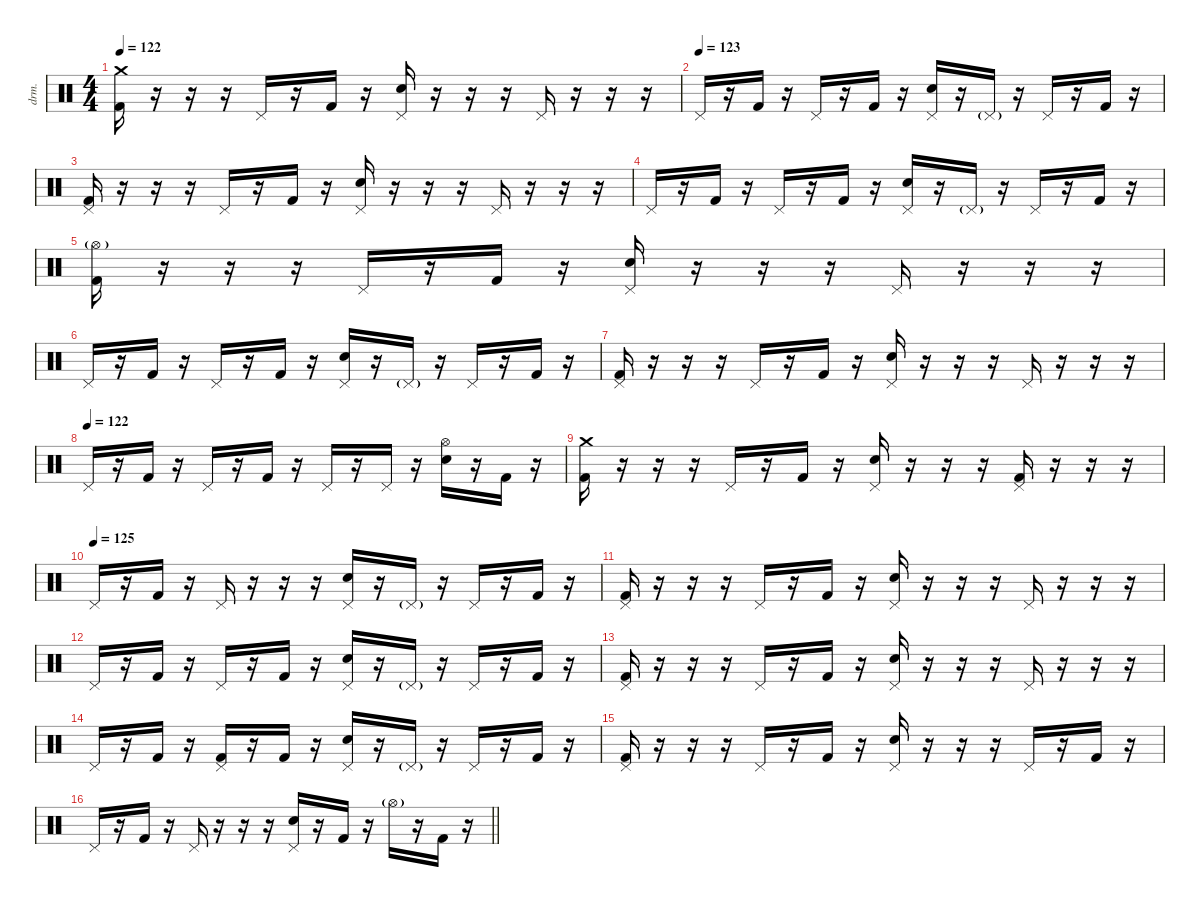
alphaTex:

\defaultSystemsLayout 4
\hideDynamics
\bracketExtendMode nobrackets
\otherSystemsTrackNameOrientation horizontal
\track ("Percussion" "drm.") {instrument percussion}
\staff {score}
\articulation defaults
\ts (4 4)
\section ("" "")
\tempo 122
\clef neutral
\ks c
("Kick (hit) 2" "Crash medium (hit)").16{dy f beam Down} r.16{beam Down} r.16{beam Down} r.16{beam Down} "Pedal Hi-Hat (hit)".16{beam Up} r.16{beam Up} "Kick (hit) 2".16{beam Up} r.16{beam Up} ("Snare (hit) 2" "Pedal Hi-Hat (hit)").16{beam Up} r.16{beam Up} r.16{beam Up} r.16{beam Up} "Pedal Hi-Hat (hit)".16{beam Up} r.16{beam Up} r.16{beam Up} r.16{beam Up} |
\tempo (123)
"Pedal Hi-Hat (hit)".16{beam Up} r.16{beam Up} "Kick (hit) 2".16{beam Up} r.16{beam Up} "Pedal Hi-Hat (hit)".16{beam Up} r.16{beam Up} "Kick (hit) 2".16{beam Up} r.16{beam Up} ("Snare (hit) 2" "Pedal Hi-Hat (hit)").16{beam Up} r.16{beam Up} "Pedal Hi-Hat (hit)"{g}.16{dy mf beam Up} r.16{beam Up} "Pedal Hi-Hat (hit)".16{dy f beam Up} r.16{beam Up} "Kick (hit) 2".16{beam Up} r.16{beam Up} |
("Kick (hit) 2" "Pedal Hi-Hat (hit)").16{beam Up} r.16{beam Up} r.16{beam Up} r.16{beam Up} "Pedal Hi-Hat (hit)".16{beam Up} r.16{beam Up} "Kick (hit) 2".16{beam Up} r.16{beam Up} ("Snare (hit) 2" "Pedal Hi-Hat (hit)").16{beam Up} r.16{beam Up} r.16{beam Up} r.16{beam Up} "Pedal Hi-Hat (hit)".16{beam Up} r.16{beam Up} r.16{beam Up} r.16{beam Up} |
"Pedal Hi-Hat (hit)".16{beam Up} r.16{beam Up} "Kick (hit) 2".16{beam Up} r.16{beam Up} "Pedal Hi-Hat (hit)".16{beam Up} r.16{beam Up} "Kick (hit) 2".16{beam Up} r.16{beam Up} ("Snare (hit) 2" "Pedal Hi-Hat (hit)").16{beam Up} r.16{beam Up} "Pedal Hi-Hat (hit)"{g}.16{dy mf beam Up} r.16{beam Up} "Pedal Hi-Hat (hit)".16{dy f beam Up} r.16{beam Up} "Kick (hit) 2".16{beam Up} r.16{beam Up} |
("Kick (hit) 2" "Hi-Hat (open)"{g}).16{beam Down} r.16{beam Down} r.16{beam Down} r.16{beam Down} "Pedal Hi-Hat (hit)".16{beam Up} r.16{beam Up} "Kick (hit) 2".16{beam Up} r.16{beam Up} ("Snare (hit) 2" "Pedal Hi-Hat (hit)").16{beam Up} r.16{beam Up} r.16{beam Up} r.16{beam Up} "Pedal Hi-Hat (hit)".16{beam Up} r.16{beam Up} r.16{beam Up} r.16{beam Up} |
"Pedal Hi-Hat (hit)".16{beam Up} r.16{beam Up} "Kick (hit) 2".16{beam Up} r.16{beam Up} "Pedal Hi-Hat (hit)".16{beam Up} r.16{beam Up} "Kick (hit) 2".16{beam Up} r.16{beam Up} ("Snare (hit) 2" "Pedal Hi-Hat (hit)").16{beam Up} r.16{beam Up} "Pedal Hi-Hat (hit)"{g}.16{dy mf beam Up} r.16{beam Up} "Pedal Hi-Hat (hit)".16{dy f beam Up} r.16{beam Up} "Kick (hit) 2".16{beam Up} r.16{beam Up} |
("Kick (hit) 2" "Pedal Hi-Hat (hit)").16{beam Up} r.16{beam Up} r.16{beam Up} r.16{beam Up} "Pedal Hi-Hat (hit)".16{beam Up} r.16{beam Up} "Kick (hit) 2".16{beam Up} r.16{beam Up} ("Snare (hit) 2" "Pedal Hi-Hat (hit)").16{beam Up} r.16{beam Up} r.16{beam Up} r.16{beam Up} "Pedal Hi-Hat (hit)".16{beam Up} r.16{beam Up} r.16{beam Up} r.16{beam Up} |
\tempo (122)
"Pedal Hi-Hat (hit)".16{beam Up} r.16{beam Up} "Kick (hit) 2".16{beam Up} r.16{beam Up} "Pedal Hi-Hat (hit)".16{beam Up} r.16{beam Up} "Kick (hit) 2".16{beam Up} r.16{beam Up} "Pedal Hi-Hat (hit)".16{beam Up} r.16{beam Up} "Pedal Hi-Hat (hit)".16{beam Up} r.16{beam Up} ("Snare (hit) 2" "Hi-Hat (open)").16{beam Down} r.16{beam Down} "Kick (hit) 2".16{beam Down} r.16{beam Down} |
("Kick (hit) 2" "Crash medium (hit)").16{beam Down} r.16{beam Down} r.16{beam Down} r.16{beam Down} "Pedal Hi-Hat (hit)".16{beam Up} r.16{beam Up} "Kick (hit) 2".16{beam Up} r.16{beam Up} ("Snare (hit) 2" "Pedal Hi-Hat (hit)").16{beam Up} r.16{beam Up} r.16{beam Up} r.16{beam Up} ("Kick (hit) 2" "Pedal Hi-Hat (hit)").16{beam Up} r.16{beam Up} r.16{beam Up} r.16{beam Up} |
\tempo (125)
"Pedal Hi-Hat (hit)".16{beam Up} r.16{beam Up} "Kick (hit) 2".16{beam Up} r.16{beam Up} "Pedal Hi-Hat (hit)".16{beam Up} r.16{beam Up} r.16{beam Up} r.16{beam Up} ("Snare (hit) 2" "Pedal Hi-Hat (hit)").16{beam Up} r.16{beam Up} "Pedal Hi-Hat (hit)"{g}.16{dy mf beam Up} r.16{beam Up} "Pedal Hi-Hat (hit)".16{dy f beam Up} r.16{beam Up} "Kick (hit) 2".16{beam Up} r.16{beam Up} |
("Kick (hit) 2" "Pedal Hi-Hat (hit)").16{beam Up} r.16{beam Up} r.16{beam Up} r.16{beam Up} "Pedal Hi-Hat (hit)".16{beam Up} r.16{beam Up} "Kick (hit) 2".16{beam Up} r.16{beam Up} ("Snare (hit) 2" "Pedal Hi-Hat (hit)").16{beam Up} r.16{beam Up} r.16{beam Up} r.16{beam Up} "Pedal Hi-Hat (hit)".16{beam Up} r.16{beam Up} r.16{beam Up} r.16{beam Up} |
"Pedal Hi-Hat (hit)".16{beam Up} r.16{beam Up} "Kick (hit) 2".16{beam Up} r.16{beam Up} "Pedal Hi-Hat (hit)".16{beam Up} r.16{beam Up} "Kick (hit) 2".16{beam Up} r.16{beam Up} ("Snare (hit) 2" "Pedal Hi-Hat (hit)").16{beam Up} r.16{beam Up} "Pedal Hi-Hat (hit)"{g}.16{dy mf beam Up} r.16{beam Up} "Pedal Hi-Hat (hit)".16{dy f beam Up} r.16{beam Up} "Kick (hit) 2".16{beam Up} r.16{beam Up} |
("Kick (hit) 2" "Pedal Hi-Hat (hit)").16{beam Up} r.16{beam Up} r.16{beam Up} r.16{beam Up} "Pedal Hi-Hat (hit)".16{beam Up} r.16{beam Up} "Kick (hit) 2".16{beam Up} r.16{beam Up} ("Snare (hit) 2" "Pedal Hi-Hat (hit)").16{beam Up} r.16{beam Up} r.16{beam Up} r.16{beam Up} "Pedal Hi-Hat (hit)".16{beam Up} r.16{beam Up} r.16{beam Up} r.16{beam Up} |
"Pedal Hi-Hat (hit)".16{beam Up} r.16{beam Up} "Kick (hit) 2".16{beam Up} r.16{beam Up} ("Kick (hit) 2" "Pedal Hi-Hat (hit)").16{beam Up} r.16{beam Up} "Kick (hit) 2".16{beam Up} r.16{beam Up} ("Snare (hit) 2" "Pedal Hi-Hat (hit)").16{beam Up} r.16{beam Up} "Pedal Hi-Hat (hit)"{g}.16{dy mf beam Up} r.16{beam Up} "Pedal Hi-Hat (hit)".16{dy f beam Up} r.16{beam Up} "Kick (hit) 2".16{beam Up} r.16{beam Up} |
("Kick (hit) 2" "Pedal Hi-Hat (hit)").16{beam Up} r.16{beam Up} r.16{beam Up} r.16{beam Up} "Pedal Hi-Hat (hit)".16{beam Up} r.16{beam Up} "Kick (hit) 2".16{beam Up} r.16{beam Up} ("Snare (hit) 2" "Pedal Hi-Hat (hit)").16{beam Up} r.16{beam Up} r.16{beam Up} r.16{beam Up} "Pedal Hi-Hat (hit)".16{beam Up} r.16{beam Up} "Kick (hit) 2".16{beam Up} r.16{beam Up} |
\barLineRight lightlight "Pedal Hi-Hat (hit)".16{beam Up}
r.16{beam Up} "Kick (hit) 2".16{beam Up} r.16{beam Up} "Pedal Hi-Hat (hit)".16{beam Up} r.16{beam Up} r.16{beam Up} r.16{beam Up} ("Snare (hit) 2" "Pedal Hi-Hat (hit)").16{beam Up} r.16{beam Up} "Kick (hit) 2".16{beam Up} r.16{beam Up} "Hi-Hat (open)"{g}.16{dy mf beam Down} r.16{beam Down} "Kick (hit) 2".16{dy f beam Down} r.16{beam Down}
